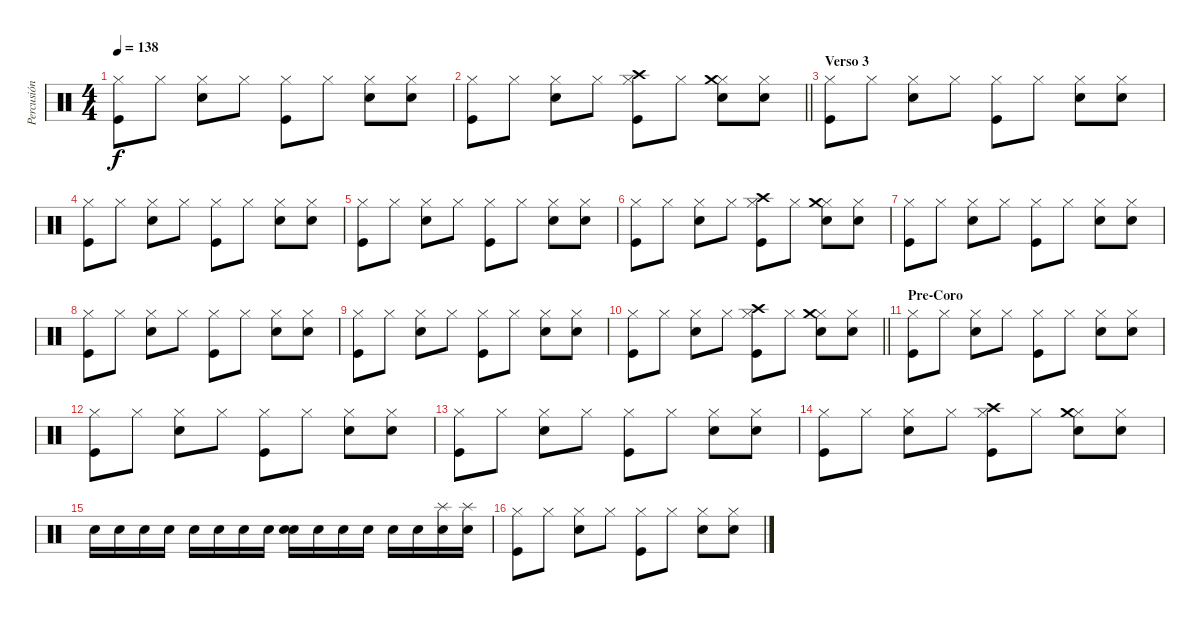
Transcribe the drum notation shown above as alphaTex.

\track ("Percusión" "Percusión") {instrument percussion}
\staff {score}
\articulation defaults
\ts (4 4)
\tempo 138
\clef neutral
\ks c
("Hi-Hat (closed)" "Kick (hit)").8{dy f} "Hi-Hat (closed)".8 ("Hi-Hat (closed)" "Snare (hit) 2").8 "Hi-Hat (closed)".8 ("Hi-Hat (closed)" "Kick (hit)").8 "Hi-Hat (closed)".8 ("Hi-Hat (closed)" "Snare (hit) 2").8 ("Hi-Hat (closed)" "Snare (hit) 2").8 |
\barLineRight lightlight
("Hi-Hat (closed)" "Kick (hit)").8 "Hi-Hat (closed)".8 ("Hi-Hat (closed)" "Snare (hit) 2").8 "Hi-Hat (closed)".8 ("Hi-Hat (closed)" "Kick (hit)" "Crash high (hit)").8 "Hi-Hat (closed)".8 ("Hi-Hat (closed)" "Snare (hit) 2" "Crash medium (hit)").8 ("Hi-Hat (closed)" "Snare (hit) 2").8 |
\section ("" "Verso 3")
("Hi-Hat (closed)" "Kick (hit)").8 "Hi-Hat (closed)".8 ("Hi-Hat (closed)" "Snare (hit) 2").8 "Hi-Hat (closed)".8 ("Hi-Hat (closed)" "Kick (hit)").8 "Hi-Hat (closed)".8 ("Hi-Hat (closed)" "Snare (hit) 2").8 ("Hi-Hat (closed)" "Snare (hit) 2").8 |
("Hi-Hat (closed)" "Kick (hit)").8 "Hi-Hat (closed)".8 ("Hi-Hat (closed)" "Snare (hit) 2").8 "Hi-Hat (closed)".8 ("Hi-Hat (closed)" "Kick (hit)").8 "Hi-Hat (closed)".8 ("Hi-Hat (closed)" "Snare (hit) 2").8 ("Hi-Hat (closed)" "Snare (hit) 2").8 |
("Hi-Hat (closed)" "Kick (hit)").8 "Hi-Hat (closed)".8 ("Hi-Hat (closed)" "Snare (hit) 2").8 "Hi-Hat (closed)".8 ("Hi-Hat (closed)" "Kick (hit)").8 "Hi-Hat (closed)".8 ("Hi-Hat (closed)" "Snare (hit) 2").8 ("Hi-Hat (closed)" "Snare (hit) 2").8 |
("Hi-Hat (closed)" "Kick (hit)").8 "Hi-Hat (closed)".8 ("Hi-Hat (closed)" "Snare (hit) 2").8 "Hi-Hat (closed)".8 ("Hi-Hat (closed)" "Kick (hit)" "Crash high (hit)").8 "Hi-Hat (closed)".8 ("Hi-Hat (closed)" "Snare (hit) 2" "Crash medium (hit)").8 ("Hi-Hat (closed)" "Snare (hit) 2").8 |
("Hi-Hat (closed)" "Kick (hit)").8 "Hi-Hat (closed)".8 ("Hi-Hat (closed)" "Snare (hit) 2").8 "Hi-Hat (closed)".8 ("Hi-Hat (closed)" "Kick (hit)").8 "Hi-Hat (closed)".8 ("Hi-Hat (closed)" "Snare (hit) 2").8 ("Hi-Hat (closed)" "Snare (hit) 2").8 |
("Hi-Hat (closed)" "Kick (hit)").8 "Hi-Hat (closed)".8 ("Hi-Hat (closed)" "Snare (hit) 2").8 "Hi-Hat (closed)".8 ("Hi-Hat (closed)" "Kick (hit)").8 "Hi-Hat (closed)".8 ("Hi-Hat (closed)" "Snare (hit) 2").8 ("Hi-Hat (closed)" "Snare (hit) 2").8 |
("Hi-Hat (closed)" "Kick (hit)").8 "Hi-Hat (closed)".8 ("Hi-Hat (closed)" "Snare (hit) 2").8 "Hi-Hat (closed)".8 ("Hi-Hat (closed)" "Kick (hit)").8 "Hi-Hat (closed)".8 ("Hi-Hat (closed)" "Snare (hit) 2").8 ("Hi-Hat (closed)" "Snare (hit) 2").8 |
\barLineRight lightlight
("Hi-Hat (closed)" "Kick (hit)").8 "Hi-Hat (closed)".8 ("Hi-Hat (closed)" "Snare (hit) 2").8 "Hi-Hat (closed)".8 ("Hi-Hat (closed)" "Kick (hit)" "Crash high (hit)").8 "Hi-Hat (closed)".8 ("Hi-Hat (closed)" "Snare (hit) 2" "Crash medium (hit)").8 ("Hi-Hat (closed)" "Snare (hit) 2").8 |
\section ("" "Pre-Coro")
("Hi-Hat (closed)" "Kick (hit)").8 "Hi-Hat (closed)".8 ("Hi-Hat (closed)" "Snare (hit) 2").8 "Hi-Hat (closed)".8 ("Hi-Hat (closed)" "Kick (hit)").8 "Hi-Hat (closed)".8 ("Hi-Hat (closed)" "Snare (hit) 2").8 ("Hi-Hat (closed)" "Snare (hit) 2").8 |
("Hi-Hat (closed)" "Kick (hit)").8 "Hi-Hat (closed)".8 ("Hi-Hat (closed)" "Snare (hit) 2").8 "Hi-Hat (closed)".8 ("Hi-Hat (closed)" "Kick (hit)").8 "Hi-Hat (closed)".8 ("Hi-Hat (closed)" "Snare (hit) 2").8 ("Hi-Hat (closed)" "Snare (hit) 2").8 |
("Hi-Hat (closed)" "Kick (hit)").8 "Hi-Hat (closed)".8 ("Hi-Hat (closed)" "Snare (hit) 2").8 "Hi-Hat (closed)".8 ("Hi-Hat (closed)" "Kick (hit)").8 "Hi-Hat (closed)".8 ("Hi-Hat (closed)" "Snare (hit) 2").8 ("Hi-Hat (closed)" "Snare (hit) 2").8 |
("Hi-Hat (closed)" "Kick (hit)").8 "Hi-Hat (closed)".8 ("Hi-Hat (closed)" "Snare (hit) 2").8 "Hi-Hat (closed)".8 ("Hi-Hat (closed)" "Kick (hit)" "Crash high (hit)").8 "Hi-Hat (closed)".8 ("Hi-Hat (closed)" "Snare (hit) 2" "Crash medium (hit)").8 ("Hi-Hat (closed)" "Snare (hit) 2").8 |
"Snare (hit) 2".16 "Snare (hit) 2".16 "Snare (hit) 2".16 "Snare (hit) 2".16 "Snare (hit) 2".16 "Snare (hit) 2".16 "Snare (hit) 2".16 "Snare (hit) 2".16 ("Snare (hit) 2" "Snare (hit) 2").16 "Snare (hit) 2".16 "Snare (hit) 2".16 "Snare (hit) 2".16 "Snare (hit) 2".16 "Snare (hit) 2".16 ("Splash (hit)" "Snare (hit) 2").16 ("Splash (hit)" "Snare (hit) 2").16 |
("Hi-Hat (closed)" "Kick (hit)").8 "Hi-Hat (closed)".8 ("Hi-Hat (closed)" "Snare (hit) 2").8 "Hi-Hat (closed)".8 ("Hi-Hat (closed)" "Kick (hit)").8 "Hi-Hat (closed)".8 ("Hi-Hat (closed)" "Snare (hit) 2").8 ("Hi-Hat (closed)" "Snare (hit) 2").8
